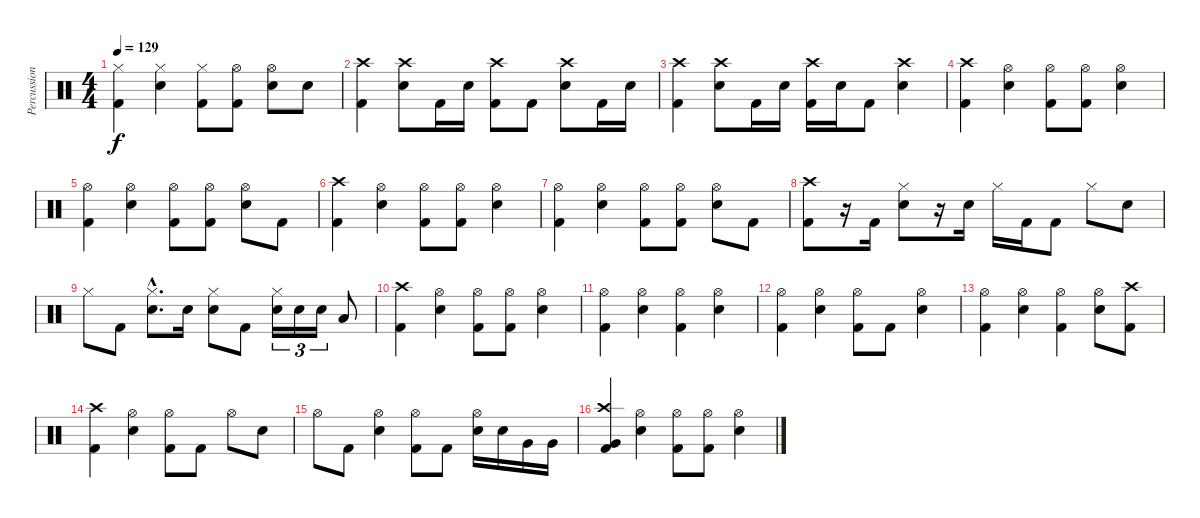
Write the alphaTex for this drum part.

\track ("Percussions" "Percussion") {instrument percussion}
\staff {score}
\articulation defaults
\ts (4 4)
\tempo 129
\clef neutral
\ks c
("Hi-Hat (closed)" "Kick (hit) 2").4{dy f} ("Hi-Hat (closed)" "Electric Snare (hit)").4 ("Hi-Hat (closed)" "Kick (hit) 2").8 ("Hi-Hat (open)" "Kick (hit) 2").8 ("Hi-Hat (open)" "Electric Snare (hit)").8 "Electric Snare (hit)".8 |
("Crash high (hit)" "Kick (hit) 2").4 ("Crash high (hit)" "Electric Snare (hit)").8 "Kick (hit) 2".16 "Electric Snare (hit)".16 ("Crash high (hit)" "Kick (hit) 2").8 "Kick (hit) 2".8 ("Crash high (hit)" "Electric Snare (hit)").8 "Kick (hit) 2".16 "Electric Snare (hit)".16 |
("Crash high (hit)" "Kick (hit) 2").4 ("Crash high (hit)" "Electric Snare (hit)").8 "Kick (hit) 2".16 "Electric Snare (hit)".16 ("Crash high (hit)" "Kick (hit) 2").16 "Electric Snare (hit)".16 "Kick (hit) 2".8 ("Crash high (hit)" "Electric Snare (hit)").4 |
("Crash high (hit)" "Kick (hit) 2").4 ("Hi-Hat (open)" "Electric Snare (hit)").4 ("Hi-Hat (open)" "Kick (hit) 2").8 ("Hi-Hat (open)" "Kick (hit) 2").8 ("Hi-Hat (open)" "Electric Snare (hit)").4 |
("Hi-Hat (open)" "Kick (hit) 2").4 ("Hi-Hat (open)" "Electric Snare (hit)").4 ("Hi-Hat (open)" "Kick (hit) 2").8 ("Hi-Hat (open)" "Kick (hit) 2").8 ("Hi-Hat (open)" "Electric Snare (hit)").8 "Kick (hit) 2".8 |
("Crash high (hit)" "Kick (hit) 2").4 ("Hi-Hat (open)" "Electric Snare (hit)").4 ("Hi-Hat (open)" "Kick (hit) 2").8 ("Hi-Hat (open)" "Kick (hit) 2").8 ("Hi-Hat (open)" "Electric Snare (hit)").4 |
("Hi-Hat (open)" "Kick (hit) 2").4 ("Hi-Hat (open)" "Electric Snare (hit)").4 ("Hi-Hat (open)" "Kick (hit) 2").8 ("Hi-Hat (open)" "Kick (hit) 2").8 ("Hi-Hat (open)" "Electric Snare (hit)").8 "Kick (hit) 2".8 |
("Crash high (hit)" "Kick (hit) 2").8 r.16 "Kick (hit) 2".16 ("Hi-Hat (closed)" "Electric Snare (hit)").8 r.16 "Electric Snare (hit)".16 "Hi-Hat (closed)".16 "Kick (hit) 2".16 "Kick (hit) 2".8 "Hi-Hat (closed)".8 "Electric Snare (hit)".8 |
"Hi-Hat (closed)".8 "Kick (hit) 2".8 ("Hi-Hat (closed)"{hac} "Electric Snare (hit)"{hac}).8{d} "Electric Snare (hit)".16 ("Hi-Hat (closed)" "Electric Snare (hit)").8 "Kick (hit) 2".8 ("Hi-Hat (closed)" "Electric Snare (hit)").16{tu (3 2)} "Electric Snare (hit)".16{tu (3 2)} "Electric Snare (hit)".16{tu (3 2)} "Low Tom (hit)".8 |
("Crash high (hit)" "Kick (hit) 2").4 ("Hi-Hat (open)" "Electric Snare (hit)").4 ("Hi-Hat (open)" "Kick (hit) 2").8 ("Hi-Hat (open)" "Kick (hit) 2").8 ("Hi-Hat (open)" "Electric Snare (hit)").4 |
("Hi-Hat (open)" "Kick (hit) 2").4 ("Hi-Hat (open)" "Electric Snare (hit)").4 ("Hi-Hat (open)" "Kick (hit) 2").4 ("Hi-Hat (open)" "Electric Snare (hit)").4 |
("Hi-Hat (open)" "Kick (hit) 2").4 ("Hi-Hat (open)" "Electric Snare (hit)").4 ("Hi-Hat (open)" "Kick (hit) 2").8 "Kick (hit) 2".8 ("Hi-Hat (open)" "Electric Snare (hit)").4 |
("Hi-Hat (open)" "Kick (hit) 2").4 ("Hi-Hat (open)" "Electric Snare (hit)").4 ("Hi-Hat (open)" "Kick (hit) 2").4 ("Hi-Hat (open)" "Electric Snare (hit)").8 ("Crash high (hit)" "Kick (hit) 2").8 |
("Crash high (hit)" "Kick (hit) 2").4 ("Hi-Hat (open)" "Electric Snare (hit)").4 ("Hi-Hat (open)" "Kick (hit) 2").8 "Kick (hit) 2".8 "Hi-Hat (open)".8 "Electric Snare (hit)".8 |
"Hi-Hat (open)".8 "Kick (hit) 2".8 ("Hi-Hat (open)" "Electric Snare (hit)").4 ("Hi-Hat (open)" "Kick (hit) 2").8 "Kick (hit) 2".8 ("Hi-Hat (open)" "Electric Snare (hit)").16 "Electric Snare (hit)".16 "Very Low Tom (hit)".16 "Very Low Tom (hit)".16 |
("Crash high (hit)" "Very Low Tom (hit)" "Kick (hit) 2").4 ("Hi-Hat (open)" "Electric Snare (hit)").4 ("Hi-Hat (open)" "Kick (hit) 2").8 ("Hi-Hat (open)" "Kick (hit) 2").8 ("Hi-Hat (open)" "Electric Snare (hit)").4
